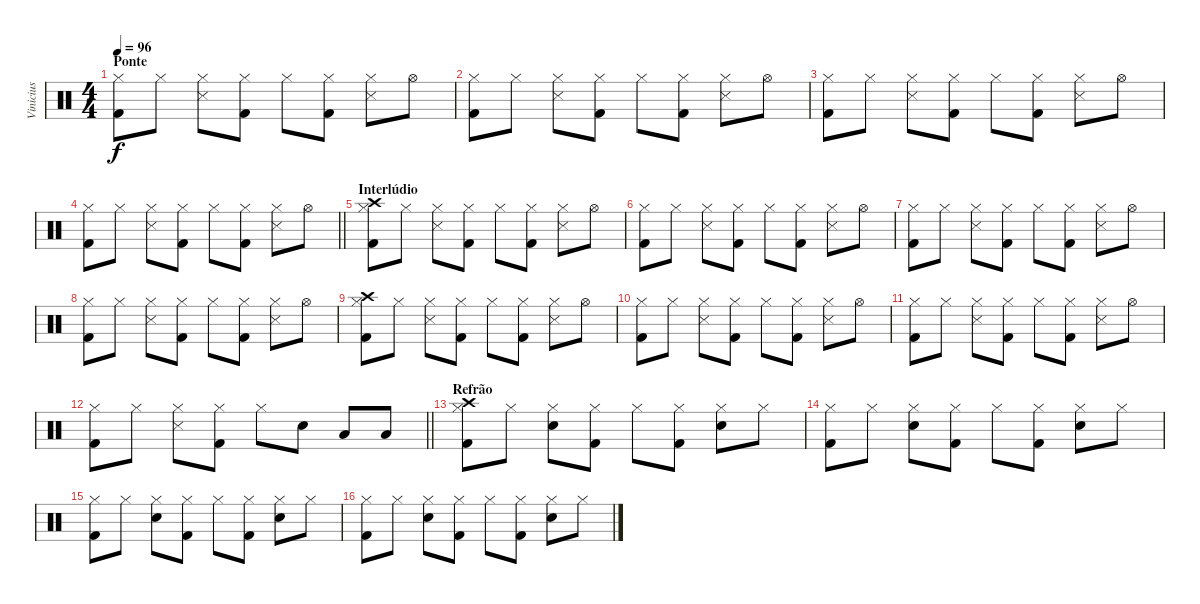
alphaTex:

\track ("Vinicius" "Vinicius") {instrument percussion}
\staff {score}
\articulation defaults
\ts (4 4)
\section ("" "Ponte")
\tempo 96
\clef neutral
\ks c
("Kick (hit) 2" "Hi-Hat (closed)").8{dy f} "Hi-Hat (closed)".8 ("Snare (side stick) 3" "Hi-Hat (closed)").8 ("Kick (hit) 2" "Hi-Hat (closed)").8 "Hi-Hat (closed)".8 ("Kick (hit) 2" "Hi-Hat (closed)").8 ("Snare (side stick) 3" "Hi-Hat (closed)").8 "Hi-Hat (open)".8 |
("Kick (hit) 2" "Hi-Hat (closed)").8 "Hi-Hat (closed)".8 ("Snare (side stick) 3" "Hi-Hat (closed)").8 ("Kick (hit) 2" "Hi-Hat (closed)").8 "Hi-Hat (closed)".8 ("Kick (hit) 2" "Hi-Hat (closed)").8 ("Snare (side stick) 3" "Hi-Hat (closed)").8 "Hi-Hat (open)".8 |
("Kick (hit) 2" "Hi-Hat (closed)").8 "Hi-Hat (closed)".8 ("Snare (side stick) 3" "Hi-Hat (closed)").8 ("Kick (hit) 2" "Hi-Hat (closed)").8 "Hi-Hat (closed)".8 ("Kick (hit) 2" "Hi-Hat (closed)").8 ("Snare (side stick) 3" "Hi-Hat (closed)").8 "Hi-Hat (open)".8 |
\barLineRight lightlight
("Kick (hit) 2" "Hi-Hat (closed)").8 "Hi-Hat (closed)".8 ("Snare (side stick) 3" "Hi-Hat (closed)").8 ("Kick (hit) 2" "Hi-Hat (closed)").8 "Hi-Hat (closed)".8 ("Kick (hit) 2" "Hi-Hat (closed)").8 ("Snare (side stick) 3" "Hi-Hat (closed)").8 "Hi-Hat (open)".8 |
\section ("" "Interlúdio")
("Kick (hit) 2" "Crash high (hit)" "Hi-Hat (closed)").8 "Hi-Hat (closed)".8 ("Snare (side stick) 3" "Hi-Hat (closed)").8 ("Kick (hit) 2" "Hi-Hat (closed)").8 "Hi-Hat (closed)".8 ("Kick (hit) 2" "Hi-Hat (closed)").8 ("Snare (side stick) 3" "Hi-Hat (closed)").8 "Hi-Hat (open)".8 |
("Kick (hit) 2" "Hi-Hat (closed)").8 "Hi-Hat (closed)".8 ("Snare (side stick) 3" "Hi-Hat (closed)").8 ("Kick (hit) 2" "Hi-Hat (closed)").8 "Hi-Hat (closed)".8 ("Kick (hit) 2" "Hi-Hat (closed)").8 ("Snare (side stick) 3" "Hi-Hat (closed)").8 "Hi-Hat (open)".8 |
("Kick (hit) 2" "Hi-Hat (closed)").8 "Hi-Hat (closed)".8 ("Snare (side stick) 3" "Hi-Hat (closed)").8 ("Kick (hit) 2" "Hi-Hat (closed)").8 "Hi-Hat (closed)".8 ("Kick (hit) 2" "Hi-Hat (closed)").8 ("Snare (side stick) 3" "Hi-Hat (closed)").8 "Hi-Hat (open)".8 |
("Kick (hit) 2" "Hi-Hat (closed)").8 "Hi-Hat (closed)".8 ("Snare (side stick) 3" "Hi-Hat (closed)").8 ("Kick (hit) 2" "Hi-Hat (closed)").8 "Hi-Hat (closed)".8 ("Kick (hit) 2" "Hi-Hat (closed)").8 ("Snare (side stick) 3" "Hi-Hat (closed)").8 "Hi-Hat (open)".8 |
("Kick (hit) 2" "Crash high (hit)" "Hi-Hat (closed)").8 "Hi-Hat (closed)".8 ("Snare (side stick) 3" "Hi-Hat (closed)").8 ("Kick (hit) 2" "Hi-Hat (closed)").8 "Hi-Hat (closed)".8 ("Kick (hit) 2" "Hi-Hat (closed)").8 ("Snare (side stick) 3" "Hi-Hat (closed)").8 "Hi-Hat (open)".8 |
("Kick (hit) 2" "Hi-Hat (closed)").8 "Hi-Hat (closed)".8 ("Snare (side stick) 3" "Hi-Hat (closed)").8 ("Kick (hit) 2" "Hi-Hat (closed)").8 "Hi-Hat (closed)".8 ("Kick (hit) 2" "Hi-Hat (closed)").8 ("Snare (side stick) 3" "Hi-Hat (closed)").8 "Hi-Hat (open)".8 |
("Kick (hit) 2" "Hi-Hat (closed)").8 "Hi-Hat (closed)".8 ("Snare (side stick) 3" "Hi-Hat (closed)").8 ("Kick (hit) 2" "Hi-Hat (closed)").8 "Hi-Hat (closed)".8 ("Kick (hit) 2" "Hi-Hat (closed)").8 ("Snare (side stick) 3" "Hi-Hat (closed)").8 "Hi-Hat (open)".8 |
\barLineRight lightlight
("Kick (hit) 2" "Hi-Hat (closed)").8 "Hi-Hat (closed)".8 ("Snare (side stick) 3" "Hi-Hat (closed)").8 ("Kick (hit) 2" "Hi-Hat (closed)").8 "Hi-Hat (closed)".8 "Snare (hit) 2".8 "Low Tom (hit)".8 "Low Tom (hit)".8 |
\section ("" "Refrão")
("Kick (hit) 2" "Crash high (hit)" "Hi-Hat (closed)").8 "Hi-Hat (closed)".8 ("Snare (hit) 2" "Hi-Hat (closed)").8 ("Kick (hit) 2" "Hi-Hat (closed)").8 "Hi-Hat (closed)".8 ("Kick (hit) 2" "Hi-Hat (closed)").8 ("Snare (hit) 2" "Hi-Hat (closed)").8 "Hi-Hat (closed)".8 |
("Kick (hit) 2" "Hi-Hat (closed)").8 "Hi-Hat (closed)".8 ("Snare (hit) 2" "Hi-Hat (closed)").8 ("Kick (hit) 2" "Hi-Hat (closed)").8 "Hi-Hat (closed)".8 ("Kick (hit) 2" "Hi-Hat (closed)").8 ("Snare (hit) 2" "Hi-Hat (closed)").8 "Hi-Hat (closed)".8 |
("Kick (hit) 2" "Hi-Hat (closed)").8 "Hi-Hat (closed)".8 ("Snare (hit) 2" "Hi-Hat (closed)").8 ("Kick (hit) 2" "Hi-Hat (closed)").8 "Hi-Hat (closed)".8 ("Kick (hit) 2" "Hi-Hat (closed)").8 ("Snare (hit) 2" "Hi-Hat (closed)").8 "Hi-Hat (closed)".8 |
("Kick (hit) 2" "Hi-Hat (closed)").8 "Hi-Hat (closed)".8 ("Snare (hit) 2" "Hi-Hat (closed)").8 ("Kick (hit) 2" "Hi-Hat (closed)").8 "Hi-Hat (closed)".8 ("Kick (hit) 2" "Hi-Hat (closed)").8 ("Snare (hit) 2" "Hi-Hat (closed)").8 "Hi-Hat (closed)".8
